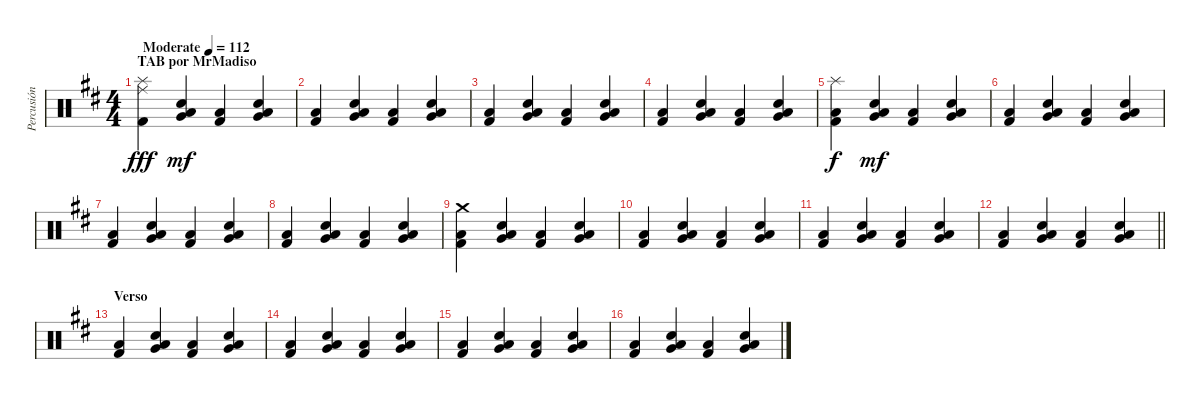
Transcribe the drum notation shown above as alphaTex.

\track ("Percusión" "Percusión") {instrument percussion}
\staff {score}
\articulation defaults
\ts (4 4)
\section ("" "TAB por MrMadiso")
\tempo (112 "Moderate")
\clef neutral
\ks d
("Ride (middle)" "Splash (hit)" "Kick (hit) 2").4{dy fff} ("Very Low Tom (hit)" "Low Floor Tom (hit)" "Snare (hit) 2").4{dy mf} ("Low Floor Tom (hit)" "Kick (hit) 2").4 ("Very Low Tom (hit)" "Low Floor Tom (hit)" "Snare (hit) 2").4 |
("Low Floor Tom (hit)" "Kick (hit) 2").4 ("Very Low Tom (hit)" "Low Floor Tom (hit)" "Snare (hit) 2").4 ("Low Floor Tom (hit)" "Kick (hit) 2").4 ("Very Low Tom (hit)" "Low Floor Tom (hit)" "Snare (hit) 2").4 |
("Low Floor Tom (hit)" "Kick (hit) 2").4 ("Very Low Tom (hit)" "Low Floor Tom (hit)" "Snare (hit) 2").4 ("Low Floor Tom (hit)" "Kick (hit) 2").4 ("Very Low Tom (hit)" "Low Floor Tom (hit)" "Snare (hit) 2").4 |
("Low Floor Tom (hit)" "Kick (hit) 2").4 ("Very Low Tom (hit)" "Low Floor Tom (hit)" "Snare (hit) 2").4 ("Low Floor Tom (hit)" "Kick (hit) 2").4 ("Very Low Tom (hit)" "Low Floor Tom (hit)" "Snare (hit) 2").4 |
("Low Floor Tom (hit)" "Splash (hit)" "Kick (hit) 2").4{dy f} ("Very Low Tom (hit)" "Low Floor Tom (hit)" "Snare (hit) 2").4{dy mf} ("Low Floor Tom (hit)" "Kick (hit) 2").4 ("Very Low Tom (hit)" "Low Floor Tom (hit)" "Snare (hit) 2").4 |
("Low Floor Tom (hit)" "Kick (hit) 2").4 ("Very Low Tom (hit)" "Low Floor Tom (hit)" "Snare (hit) 2").4 ("Low Floor Tom (hit)" "Kick (hit) 2").4 ("Very Low Tom (hit)" "Low Floor Tom (hit)" "Snare (hit) 2").4 |
("Low Floor Tom (hit)" "Kick (hit) 2").4 ("Very Low Tom (hit)" "Low Floor Tom (hit)" "Snare (hit) 2").4 ("Low Floor Tom (hit)" "Kick (hit) 2").4 ("Very Low Tom (hit)" "Low Floor Tom (hit)" "Snare (hit) 2").4 |
("Low Floor Tom (hit)" "Kick (hit) 2").4 ("Very Low Tom (hit)" "Low Floor Tom (hit)" "Snare (hit) 2").4 ("Low Floor Tom (hit)" "Kick (hit) 2").4 ("Very Low Tom (hit)" "Low Floor Tom (hit)" "Snare (hit) 2").4 |
("Crash medium (hit)" "Low Floor Tom (hit)" "Kick (hit) 2").4 ("Very Low Tom (hit)" "Low Floor Tom (hit)" "Snare (hit) 2").4 ("Low Floor Tom (hit)" "Kick (hit) 2").4 ("Very Low Tom (hit)" "Low Floor Tom (hit)" "Snare (hit) 2").4 |
("Low Floor Tom (hit)" "Kick (hit) 2").4 ("Very Low Tom (hit)" "Low Floor Tom (hit)" "Snare (hit) 2").4 ("Low Floor Tom (hit)" "Kick (hit) 2").4 ("Very Low Tom (hit)" "Low Floor Tom (hit)" "Snare (hit) 2").4 |
("Low Floor Tom (hit)" "Kick (hit) 2").4 ("Very Low Tom (hit)" "Low Floor Tom (hit)" "Snare (hit) 2").4 ("Low Floor Tom (hit)" "Kick (hit) 2").4 ("Very Low Tom (hit)" "Low Floor Tom (hit)" "Snare (hit) 2").4 |
\barLineRight lightlight
("Low Floor Tom (hit)" "Kick (hit) 2").4 ("Very Low Tom (hit)" "Low Floor Tom (hit)" "Snare (hit) 2").4 ("Low Floor Tom (hit)" "Kick (hit) 2").4 ("Very Low Tom (hit)" "Low Floor Tom (hit)" "Snare (hit) 2").4 |
\section ("" "Verso")
("Low Floor Tom (hit)" "Kick (hit) 2").4 ("Very Low Tom (hit)" "Low Floor Tom (hit)" "Snare (hit) 2").4 ("Low Floor Tom (hit)" "Kick (hit) 2").4 ("Very Low Tom (hit)" "Low Floor Tom (hit)" "Snare (hit) 2").4 |
("Low Floor Tom (hit)" "Kick (hit) 2").4 ("Very Low Tom (hit)" "Low Floor Tom (hit)" "Snare (hit) 2").4 ("Low Floor Tom (hit)" "Kick (hit) 2").4 ("Very Low Tom (hit)" "Low Floor Tom (hit)" "Snare (hit) 2").4 |
("Low Floor Tom (hit)" "Kick (hit) 2").4 ("Very Low Tom (hit)" "Low Floor Tom (hit)" "Snare (hit) 2").4 ("Low Floor Tom (hit)" "Kick (hit) 2").4 ("Very Low Tom (hit)" "Low Floor Tom (hit)" "Snare (hit) 2").4 |
("Low Floor Tom (hit)" "Kick (hit) 2").4 ("Very Low Tom (hit)" "Low Floor Tom (hit)" "Snare (hit) 2").4 ("Low Floor Tom (hit)" "Kick (hit) 2").4 ("Very Low Tom (hit)" "Low Floor Tom (hit)" "Snare (hit) 2").4
